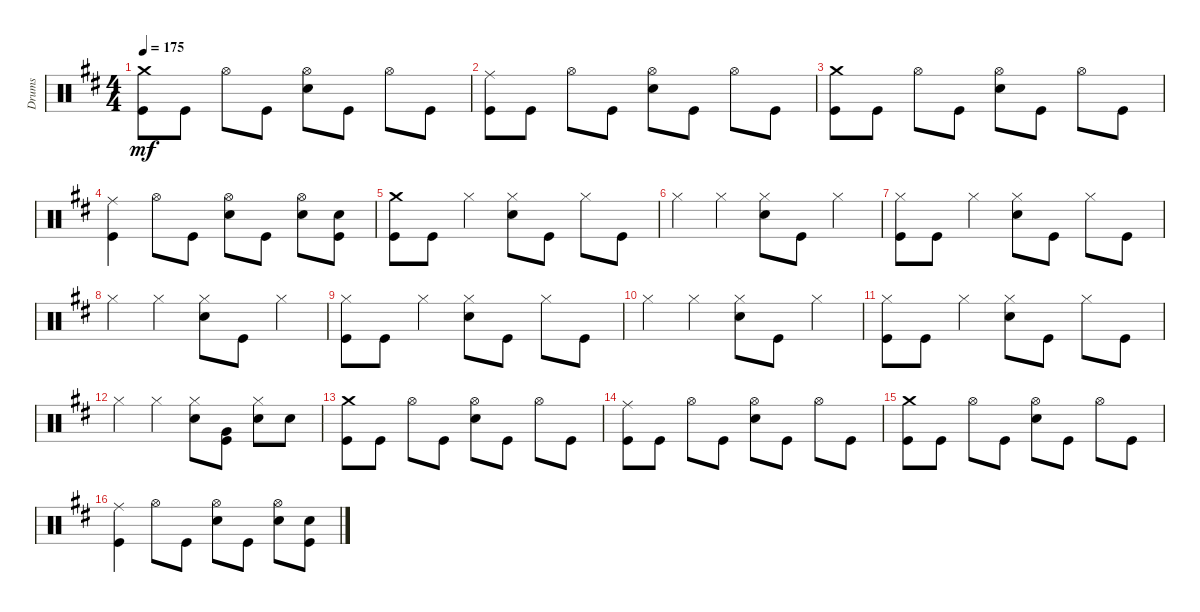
\track ("Drums" "Drums") {instrument percussion}
\staff {score}
\articulation defaults
\ts (4 4)
\tempo 175
\clef neutral
\ks d
("Kick (hit)" "Crash medium (hit)").8{dy mf} "Kick (hit)".8 "Hi-Hat (open)".8 "Kick (hit)".8 ("Hi-Hat (open)" "Snare (hit) 2").8 "Kick (hit)".8 "Hi-Hat (open)".8 "Kick (hit)".8 |
("Kick (hit)" "Ride (middle)").8 "Kick (hit)".8 "Hi-Hat (open)".8 "Kick (hit)".8 ("Hi-Hat (open)" "Snare (hit) 2").8 "Kick (hit)".8 "Hi-Hat (open)".8 "Kick (hit)".8 |
("Kick (hit)" "Crash medium (hit)").8 "Kick (hit)".8 "Hi-Hat (open)".8 "Kick (hit)".8 ("Hi-Hat (open)" "Snare (hit) 2").8 "Kick (hit)".8 "Hi-Hat (open)".8 "Kick (hit)".8 |
("Kick (hit)" "Ride (middle)").4 "Hi-Hat (open)".8 "Kick (hit)".8 ("Hi-Hat (open)" "Snare (hit) 2").8 "Kick (hit)".8 ("Snare (hit) 2" "Hi-Hat (open)").8 ("Snare (hit) 2" "Kick (hit)").8 |
("Kick (hit)" "Crash medium (hit)").8 "Kick (hit)".8 "Hi-Hat (closed)".4 ("Hi-Hat (closed)" "Snare (hit) 2").8 "Kick (hit)".8 "Hi-Hat (closed)".8 "Kick (hit)".8 |
"Hi-Hat (closed)".4 "Hi-Hat (closed)".4 ("Hi-Hat (closed)" "Snare (hit) 2").8 "Kick (hit)".8 "Hi-Hat (closed)".4 |
("Kick (hit)" "Hi-Hat (closed)").8 "Kick (hit)".8 "Hi-Hat (closed)".4 ("Hi-Hat (closed)" "Snare (hit) 2").8 "Kick (hit)".8 "Hi-Hat (closed)".8 "Kick (hit)".8 |
"Hi-Hat (closed)".4 "Hi-Hat (closed)".4 ("Hi-Hat (closed)" "Snare (hit) 2").8 "Kick (hit)".8 "Hi-Hat (closed)".4 |
("Kick (hit)" "Hi-Hat (closed)").8 "Kick (hit)".8 "Hi-Hat (closed)".4 ("Hi-Hat (closed)" "Snare (hit) 2").8 "Kick (hit)".8 "Hi-Hat (closed)".8 "Kick (hit)".8 |
"Hi-Hat (closed)".4 "Hi-Hat (closed)".4 ("Hi-Hat (closed)" "Snare (hit) 2").8 "Kick (hit)".8 "Hi-Hat (closed)".4 |
("Kick (hit)" "Hi-Hat (closed)").8 "Kick (hit)".8 "Hi-Hat (closed)".4 ("Hi-Hat (closed)" "Snare (hit) 2").8 "Kick (hit)".8 "Hi-Hat (closed)".8 "Kick (hit)".8 |
"Hi-Hat (closed)".4 "Hi-Hat (closed)".4 ("Hi-Hat (closed)" "Snare (hit) 2").8 ("Kick (hit)" "Very Low Tom (hit)").8 ("Hi-Hat (closed)" "Snare (hit) 2").8 "Snare (hit) 2".8 |
("Kick (hit)" "Crash medium (hit)").8 "Kick (hit)".8 "Hi-Hat (open)".8 "Kick (hit)".8 ("Hi-Hat (open)" "Snare (hit) 2").8 "Kick (hit)".8 "Hi-Hat (open)".8 "Kick (hit)".8 |
("Kick (hit)" "Ride (middle)").8 "Kick (hit)".8 "Hi-Hat (open)".8 "Kick (hit)".8 ("Hi-Hat (open)" "Snare (hit) 2").8 "Kick (hit)".8 "Hi-Hat (open)".8 "Kick (hit)".8 |
("Kick (hit)" "Crash medium (hit)").8 "Kick (hit)".8 "Hi-Hat (open)".8 "Kick (hit)".8 ("Hi-Hat (open)" "Snare (hit) 2").8 "Kick (hit)".8 "Hi-Hat (open)".8 "Kick (hit)".8 |
("Kick (hit)" "Ride (middle)").4 "Hi-Hat (open)".8 "Kick (hit)".8 ("Hi-Hat (open)" "Snare (hit) 2").8 "Kick (hit)".8 ("Snare (hit) 2" "Hi-Hat (open)").8 ("Snare (hit) 2" "Kick (hit)").8
